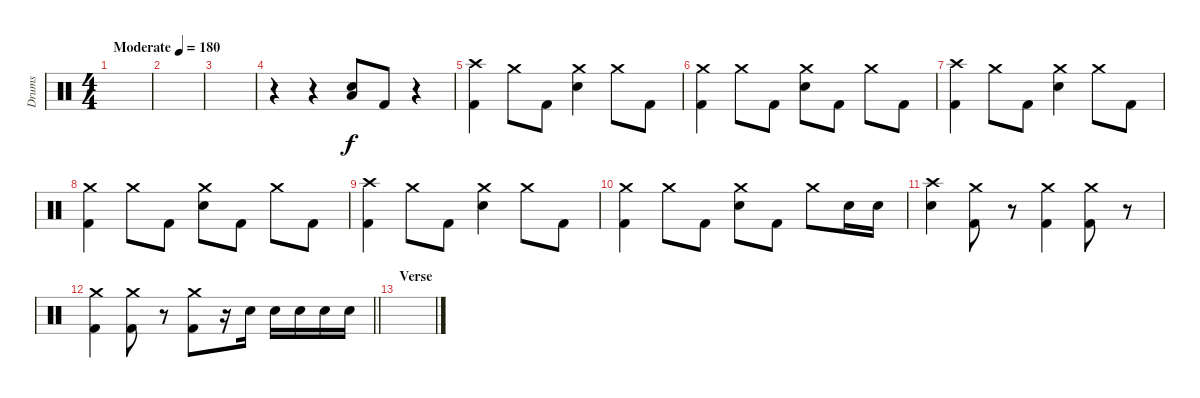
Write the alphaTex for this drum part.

\track ("Drums" "Drums") {instrument percussion}
\staff {score}
\articulation defaults
\ts (4 4)
\tempo (180 "Moderate")
\clef neutral
\ks c
|
|
|
r.4 r.4 ("Low Tom (hit)" "Electric Snare (hit)").8 "Kick (hit) 2".8 r.4 |
("Crash high (hit)" "Kick (hit) 2").4 "Crash medium (hit)".8 "Kick (hit) 2".8 ("Crash medium (hit)" "Electric Snare (hit)").4 "Crash medium (hit)".8 "Kick (hit) 2".8 |
("Crash medium (hit)" "Kick (hit) 2").4 "Crash medium (hit)".8 "Kick (hit) 2".8 ("Crash medium (hit)" "Electric Snare (hit)").8 "Kick (hit) 2".8 "Crash medium (hit)".8 "Kick (hit) 2".8 |
("Crash high (hit)" "Kick (hit) 2").4 "Crash medium (hit)".8 "Kick (hit) 2".8 ("Crash medium (hit)" "Electric Snare (hit)").4 "Crash medium (hit)".8 "Kick (hit) 2".8 |
("Crash medium (hit)" "Kick (hit) 2").4 "Crash medium (hit)".8 "Kick (hit) 2".8 ("Crash medium (hit)" "Electric Snare (hit)").8 "Kick (hit) 2".8 "Crash medium (hit)".8 "Kick (hit) 2".8 |
("Crash high (hit)" "Kick (hit) 2").4 "Crash medium (hit)".8 "Kick (hit) 2".8 ("Crash medium (hit)" "Electric Snare (hit)").4 "Crash medium (hit)".8 "Kick (hit) 2".8 |
("Crash medium (hit)" "Kick (hit) 2").4 "Crash medium (hit)".8 "Kick (hit) 2".8 ("Crash medium (hit)" "Electric Snare (hit)").8 "Kick (hit) 2".8 "Crash medium (hit)".8 "Electric Snare (hit)".16 "Electric Snare (hit)".16 |
("Crash high (hit)" "Electric Snare (hit)").4 ("Crash medium (hit)" "Kick (hit) 2").8 r.8 ("Crash medium (hit)" "Kick (hit) 2").4 ("Crash medium (hit)" "Kick (hit) 2").8 r.8 |
\barLineRight lightlight
("Crash medium (hit)" "Kick (hit) 2").4 ("Crash medium (hit)" "Kick (hit) 2").8 r.8 ("Crash medium (hit)" "Kick (hit) 2").8 r.16 "Electric Snare (hit)".16 "Electric Snare (hit)".16 "Electric Snare (hit)".16 "Electric Snare (hit)".16 "Electric Snare (hit)".16 |
\section ("" "Verse")
